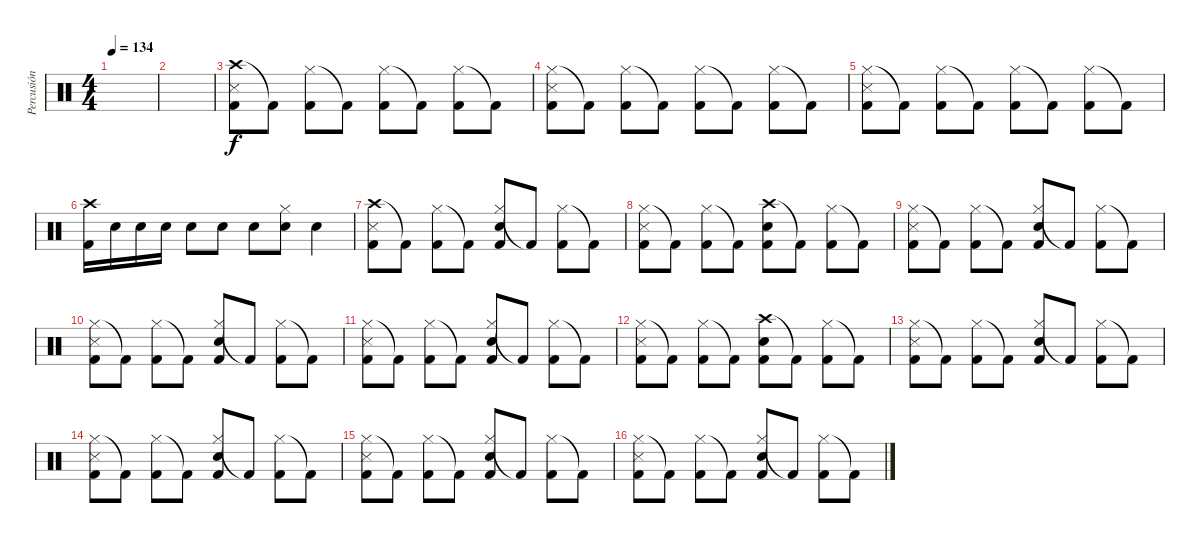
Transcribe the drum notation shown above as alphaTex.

\track ("Percusión" "Percusión") {instrument percussion}
\staff {score}
\articulation defaults
\ts (4 4)
\tempo 134
\clef neutral
\ks c
|
|
("Crash high (hit)" "Snare (side stick) 3" "Kick (hit) 2").8 "Kick (hit) 2"{t}.8 ("Hi-Hat (closed)" "Kick (hit) 2").8 "Kick (hit) 2"{t}.8 ("Hi-Hat (closed)" "Kick (hit) 2").8 "Kick (hit) 2"{t}.8 ("Hi-Hat (closed)" "Kick (hit) 2").8 "Kick (hit) 2"{t}.8 |
("Hi-Hat (closed)" "Snare (side stick) 3" "Kick (hit) 2").8 "Kick (hit) 2"{t}.8 ("Hi-Hat (closed)" "Kick (hit) 2").8 "Kick (hit) 2"{t}.8 ("Hi-Hat (closed)" "Kick (hit) 2").8 "Kick (hit) 2"{t}.8 ("Hi-Hat (closed)" "Kick (hit) 2").8 "Kick (hit) 2"{t}.8 |
("Hi-Hat (closed)" "Snare (side stick) 3" "Kick (hit) 2").8 "Kick (hit) 2"{t}.8 ("Hi-Hat (closed)" "Kick (hit) 2").8 "Kick (hit) 2"{t}.8 ("Hi-Hat (closed)" "Kick (hit) 2").8 "Kick (hit) 2"{t}.8 ("Hi-Hat (closed)" "Kick (hit) 2").8 "Kick (hit) 2"{t}.8 |
("Crash high (hit)" "Kick (hit) 2").16 "Electric Snare (hit)".16 "Electric Snare (hit)".16 "Electric Snare (hit)".16 "Electric Snare (hit)".8 "Electric Snare (hit)".8 "Electric Snare (hit)".8 ("Hi-Hat (closed)" "Electric Snare (hit)").8 "Electric Snare (hit)".4 |
("Crash high (hit)" "Snare (side stick) 3" "Kick (hit) 2").8 "Kick (hit) 2"{t}.8 ("Hi-Hat (closed)" "Kick (hit) 2").8 "Kick (hit) 2"{t}.8 ("Hi-Hat (closed)" "Snare (hit) 2" "Kick (hit) 2").8 "Kick (hit) 2"{t}.8 ("Hi-Hat (closed)" "Kick (hit) 2").8 "Kick (hit) 2"{t}.8 |
("Hi-Hat (closed)" "Snare (side stick) 3" "Kick (hit) 2").8 "Kick (hit) 2"{t}.8 ("Hi-Hat (closed)" "Kick (hit) 2").8 "Kick (hit) 2"{t}.8 ("Crash high (hit)" "Snare (hit) 2" "Kick (hit) 2").8 "Kick (hit) 2"{t}.8 ("Hi-Hat (closed)" "Kick (hit) 2").8 "Kick (hit) 2"{t}.8 |
("Hi-Hat (closed)" "Snare (side stick) 3" "Kick (hit) 2").8 "Kick (hit) 2"{t}.8 ("Hi-Hat (closed)" "Kick (hit) 2").8 "Kick (hit) 2"{t}.8 ("Hi-Hat (closed)" "Snare (hit) 2" "Kick (hit) 2").8 "Kick (hit) 2"{t}.8 ("Hi-Hat (closed)" "Kick (hit) 2").8 "Kick (hit) 2"{t}.8 |
("Hi-Hat (closed)" "Snare (side stick) 3" "Kick (hit) 2").8 "Kick (hit) 2"{t}.8 ("Hi-Hat (closed)" "Kick (hit) 2").8 "Kick (hit) 2"{t}.8 ("Hi-Hat (closed)" "Snare (hit) 2" "Kick (hit) 2").8 "Kick (hit) 2"{t}.8 ("Hi-Hat (closed)" "Kick (hit) 2").8 "Kick (hit) 2"{t}.8 |
("Hi-Hat (closed)" "Snare (side stick) 3" "Kick (hit) 2").8 "Kick (hit) 2"{t}.8 ("Hi-Hat (closed)" "Kick (hit) 2").8 "Kick (hit) 2"{t}.8 ("Hi-Hat (closed)" "Snare (hit) 2" "Kick (hit) 2").8 "Kick (hit) 2"{t}.8 ("Hi-Hat (closed)" "Kick (hit) 2").8 "Kick (hit) 2"{t}.8 |
("Hi-Hat (closed)" "Snare (side stick) 3" "Kick (hit) 2").8 "Kick (hit) 2"{t}.8 ("Hi-Hat (closed)" "Kick (hit) 2").8 "Kick (hit) 2"{t}.8 ("Crash high (hit)" "Snare (hit) 2" "Kick (hit) 2").8 "Kick (hit) 2"{t}.8 ("Hi-Hat (closed)" "Kick (hit) 2").8 "Kick (hit) 2"{t}.8 |
("Hi-Hat (closed)" "Snare (side stick) 3" "Kick (hit) 2").8 "Kick (hit) 2"{t}.8 ("Hi-Hat (closed)" "Kick (hit) 2").8 "Kick (hit) 2"{t}.8 ("Hi-Hat (closed)" "Snare (hit) 2" "Kick (hit) 2").8 "Kick (hit) 2"{t}.8 ("Hi-Hat (closed)" "Kick (hit) 2").8 "Kick (hit) 2"{t}.8 |
("Hi-Hat (closed)" "Snare (side stick) 3" "Kick (hit) 2").8 "Kick (hit) 2"{t}.8 ("Hi-Hat (closed)" "Kick (hit) 2").8 "Kick (hit) 2"{t}.8 ("Hi-Hat (closed)" "Snare (hit) 2" "Kick (hit) 2").8 "Kick (hit) 2"{t}.8 ("Hi-Hat (closed)" "Kick (hit) 2").8 "Kick (hit) 2"{t}.8 |
("Hi-Hat (closed)" "Snare (side stick) 3" "Kick (hit) 2").8 "Kick (hit) 2"{t}.8 ("Hi-Hat (closed)" "Kick (hit) 2").8 "Kick (hit) 2"{t}.8 ("Hi-Hat (closed)" "Snare (hit) 2" "Kick (hit) 2").8 "Kick (hit) 2"{t}.8 ("Hi-Hat (closed)" "Kick (hit) 2").8 "Kick (hit) 2"{t}.8 |
("Hi-Hat (closed)" "Snare (side stick) 3" "Kick (hit) 2").8 "Kick (hit) 2"{t}.8 ("Hi-Hat (closed)" "Kick (hit) 2").8 "Kick (hit) 2"{t}.8 ("Hi-Hat (closed)" "Snare (hit) 2" "Kick (hit) 2").8 "Kick (hit) 2"{t}.8 ("Hi-Hat (closed)" "Kick (hit) 2").8 "Kick (hit) 2"{t}.8
